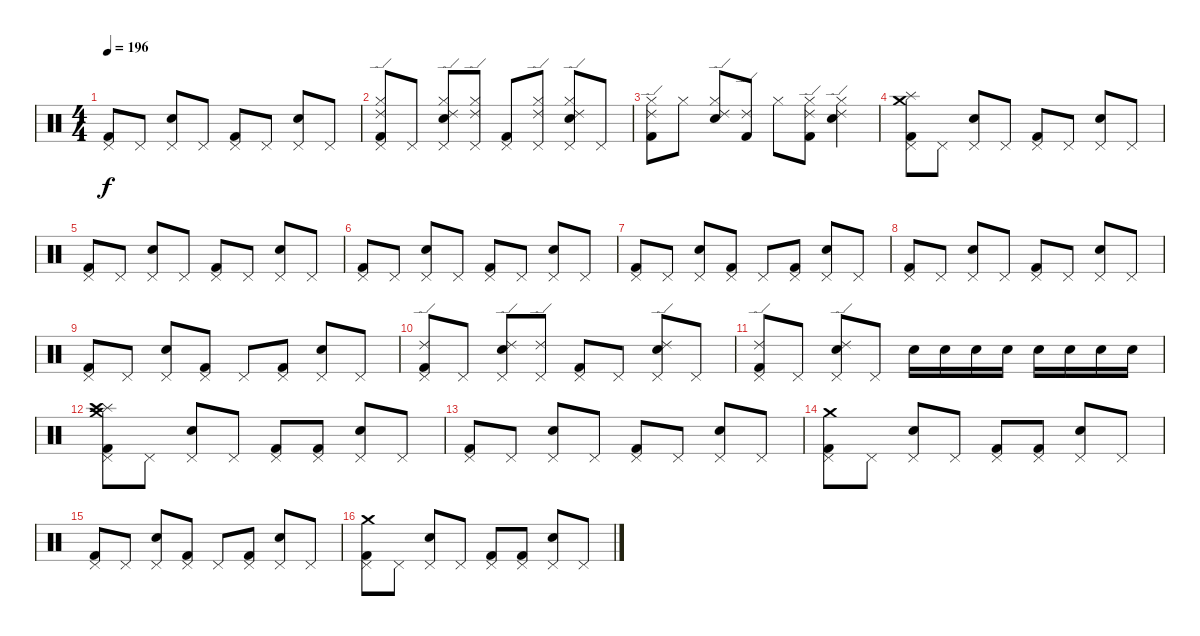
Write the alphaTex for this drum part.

\track "" {instrument percussion}
\staff {score}
\articulation defaults
\ts (4 4)
\tempo 196
\clef neutral
\ks c
("Pedal Hi-Hat (hit)" "Kick (hit) 2").8{dy f} "Pedal Hi-Hat (hit)".8 ("Electric Snare (hit)" "Pedal Hi-Hat (hit)").8 "Pedal Hi-Hat (hit)".8 ("Kick (hit) 2" "Pedal Hi-Hat (hit)").8 "Pedal Hi-Hat (hit)".8 ("Pedal Hi-Hat (hit)" "Electric Snare (hit)").8 "Pedal Hi-Hat (hit)".8 |
("Pedal Hi-Hat (hit)" "Hi-Hat (closed)" "Ride (edge) 2" "Kick (hit) 2").8 "Pedal Hi-Hat (hit)".8 ("Hi-Hat (closed)" "Ride (edge) 2" "Electric Snare (hit)" "Pedal Hi-Hat (hit)").8 ("Hi-Hat (closed)" "Ride (edge) 2" "Pedal Hi-Hat (hit)").8 ("Kick (hit) 2" "Pedal Hi-Hat (hit)").8 ("Hi-Hat (closed)" "Ride (edge) 2" "Pedal Hi-Hat (hit)").8 ("Hi-Hat (closed)" "Ride (edge) 2" "Electric Snare (hit)" "Pedal Hi-Hat (hit)").8 "Pedal Hi-Hat (hit)".8 |
("Hi-Hat (closed)" "Ride (edge) 2" "Kick (hit) 2").8 "Hi-Hat (closed)".8 ("Hi-Hat (closed)" "Ride (edge) 2" "Electric Snare (hit)").8 ("Kick (hit) 2" "Ride (edge) 2").8 "Hi-Hat (closed)".8 ("Ride (edge) 2" "Kick (hit) 2" "Hi-Hat (closed)").8 ("Hi-Hat (closed)" "Ride (edge) 2" "Electric Snare (hit)").4 |
("Pedal Hi-Hat (hit)" "Splash (hit)" "Crash medium (hit)" "Kick (hit) 2").8 "Pedal Hi-Hat (hit)".8 ("Electric Snare (hit)" "Pedal Hi-Hat (hit)").8 "Pedal Hi-Hat (hit)".8 ("Kick (hit) 2" "Pedal Hi-Hat (hit)").8 "Pedal Hi-Hat (hit)".8 ("Electric Snare (hit)" "Pedal Hi-Hat (hit)").8 "Pedal Hi-Hat (hit)".8 |
("Pedal Hi-Hat (hit)" "Kick (hit) 2").8 "Pedal Hi-Hat (hit)".8 ("Electric Snare (hit)" "Pedal Hi-Hat (hit)").8 "Pedal Hi-Hat (hit)".8 ("Kick (hit) 2" "Pedal Hi-Hat (hit)").8 "Pedal Hi-Hat (hit)".8 ("Pedal Hi-Hat (hit)" "Electric Snare (hit)").8 "Pedal Hi-Hat (hit)".8 |
("Pedal Hi-Hat (hit)" "Kick (hit) 2").8 "Pedal Hi-Hat (hit)".8 ("Electric Snare (hit)" "Pedal Hi-Hat (hit)").8 "Pedal Hi-Hat (hit)".8 ("Kick (hit) 2" "Pedal Hi-Hat (hit)").8 "Pedal Hi-Hat (hit)".8 ("Pedal Hi-Hat (hit)" "Electric Snare (hit)").8 "Pedal Hi-Hat (hit)".8 |
("Pedal Hi-Hat (hit)" "Kick (hit) 2").8 "Pedal Hi-Hat (hit)".8 ("Electric Snare (hit)" "Pedal Hi-Hat (hit)").8 ("Kick (hit) 2" "Pedal Hi-Hat (hit)").8 "Pedal Hi-Hat (hit)".8 ("Kick (hit) 2" "Pedal Hi-Hat (hit)").8 ("Pedal Hi-Hat (hit)" "Electric Snare (hit)").8 "Pedal Hi-Hat (hit)".8 |
("Pedal Hi-Hat (hit)" "Kick (hit) 2").8 "Pedal Hi-Hat (hit)".8 ("Electric Snare (hit)" "Pedal Hi-Hat (hit)").8 "Pedal Hi-Hat (hit)".8 ("Kick (hit) 2" "Pedal Hi-Hat (hit)").8 "Pedal Hi-Hat (hit)".8 ("Pedal Hi-Hat (hit)" "Electric Snare (hit)").8 "Pedal Hi-Hat (hit)".8 |
("Pedal Hi-Hat (hit)" "Kick (hit) 2").8 "Pedal Hi-Hat (hit)".8 ("Electric Snare (hit)" "Pedal Hi-Hat (hit)").8 ("Kick (hit) 2" "Pedal Hi-Hat (hit)").8 "Pedal Hi-Hat (hit)".8 ("Kick (hit) 2" "Pedal Hi-Hat (hit)").8 ("Pedal Hi-Hat (hit)" "Electric Snare (hit)").8 "Pedal Hi-Hat (hit)".8 |
("Ride (edge) 2" "Pedal Hi-Hat (hit)" "Kick (hit) 2").8 "Pedal Hi-Hat (hit)".8 ("Electric Snare (hit)" "Ride (edge) 2" "Pedal Hi-Hat (hit)").8 ("Ride (edge) 2" "Pedal Hi-Hat (hit)").8 ("Kick (hit) 2" "Pedal Hi-Hat (hit)").8 "Pedal Hi-Hat (hit)".8 ("Electric Snare (hit)" "Ride (edge) 2" "Pedal Hi-Hat (hit)").8 "Pedal Hi-Hat (hit)".8 |
("Kick (hit) 2" "Ride (edge) 2" "Pedal Hi-Hat (hit)").8 "Pedal Hi-Hat (hit)".8 ("Electric Snare (hit)" "Ride (edge) 2" "Pedal Hi-Hat (hit)").8 "Pedal Hi-Hat (hit)".8 "Electric Snare (hit)".16 "Electric Snare (hit)".16 "Electric Snare (hit)".16 "Electric Snare (hit)".16 "Electric Snare (hit)".16 "Electric Snare (hit)".16 "Electric Snare (hit)".16 "Electric Snare (hit)".16 |
("Pedal Hi-Hat (hit)" "Splash (hit)" "Crash medium (hit)" "Crash high (hit)" "Kick (hit) 2").8 "Pedal Hi-Hat (hit)".8 ("Electric Snare (hit)" "Pedal Hi-Hat (hit)").8 "Pedal Hi-Hat (hit)".8 ("Kick (hit) 2" "Pedal Hi-Hat (hit)").8 ("Kick (hit) 2" "Pedal Hi-Hat (hit)").8 ("Electric Snare (hit)" "Pedal Hi-Hat (hit)").8 "Pedal Hi-Hat (hit)".8 |
("Pedal Hi-Hat (hit)" "Kick (hit) 2").8 "Pedal Hi-Hat (hit)".8 ("Electric Snare (hit)" "Pedal Hi-Hat (hit)").8 "Pedal Hi-Hat (hit)".8 ("Kick (hit) 2" "Pedal Hi-Hat (hit)").8 "Pedal Hi-Hat (hit)".8 ("Pedal Hi-Hat (hit)" "Electric Snare (hit)").8 "Pedal Hi-Hat (hit)".8 |
("Crash medium (hit)" "Pedal Hi-Hat (hit)" "Kick (hit) 2").8 "Pedal Hi-Hat (hit)".8 ("Electric Snare (hit)" "Pedal Hi-Hat (hit)").8 "Pedal Hi-Hat (hit)".8 ("Kick (hit) 2" "Pedal Hi-Hat (hit)").8 ("Kick (hit) 2" "Pedal Hi-Hat (hit)").8 ("Pedal Hi-Hat (hit)" "Electric Snare (hit)").8 "Pedal Hi-Hat (hit)".8 |
("Pedal Hi-Hat (hit)" "Kick (hit) 2").8 "Pedal Hi-Hat (hit)".8 ("Electric Snare (hit)" "Pedal Hi-Hat (hit)").8 ("Kick (hit) 2" "Pedal Hi-Hat (hit)").8 "Pedal Hi-Hat (hit)".8 ("Kick (hit) 2" "Pedal Hi-Hat (hit)").8 ("Pedal Hi-Hat (hit)" "Electric Snare (hit)").8 "Pedal Hi-Hat (hit)".8 |
("Crash medium (hit)" "Pedal Hi-Hat (hit)" "Kick (hit) 2").8 "Pedal Hi-Hat (hit)".8 ("Electric Snare (hit)" "Pedal Hi-Hat (hit)").8 "Pedal Hi-Hat (hit)".8 ("Kick (hit) 2" "Pedal Hi-Hat (hit)").8 ("Kick (hit) 2" "Pedal Hi-Hat (hit)").8 ("Pedal Hi-Hat (hit)" "Electric Snare (hit)").8 "Pedal Hi-Hat (hit)".8
